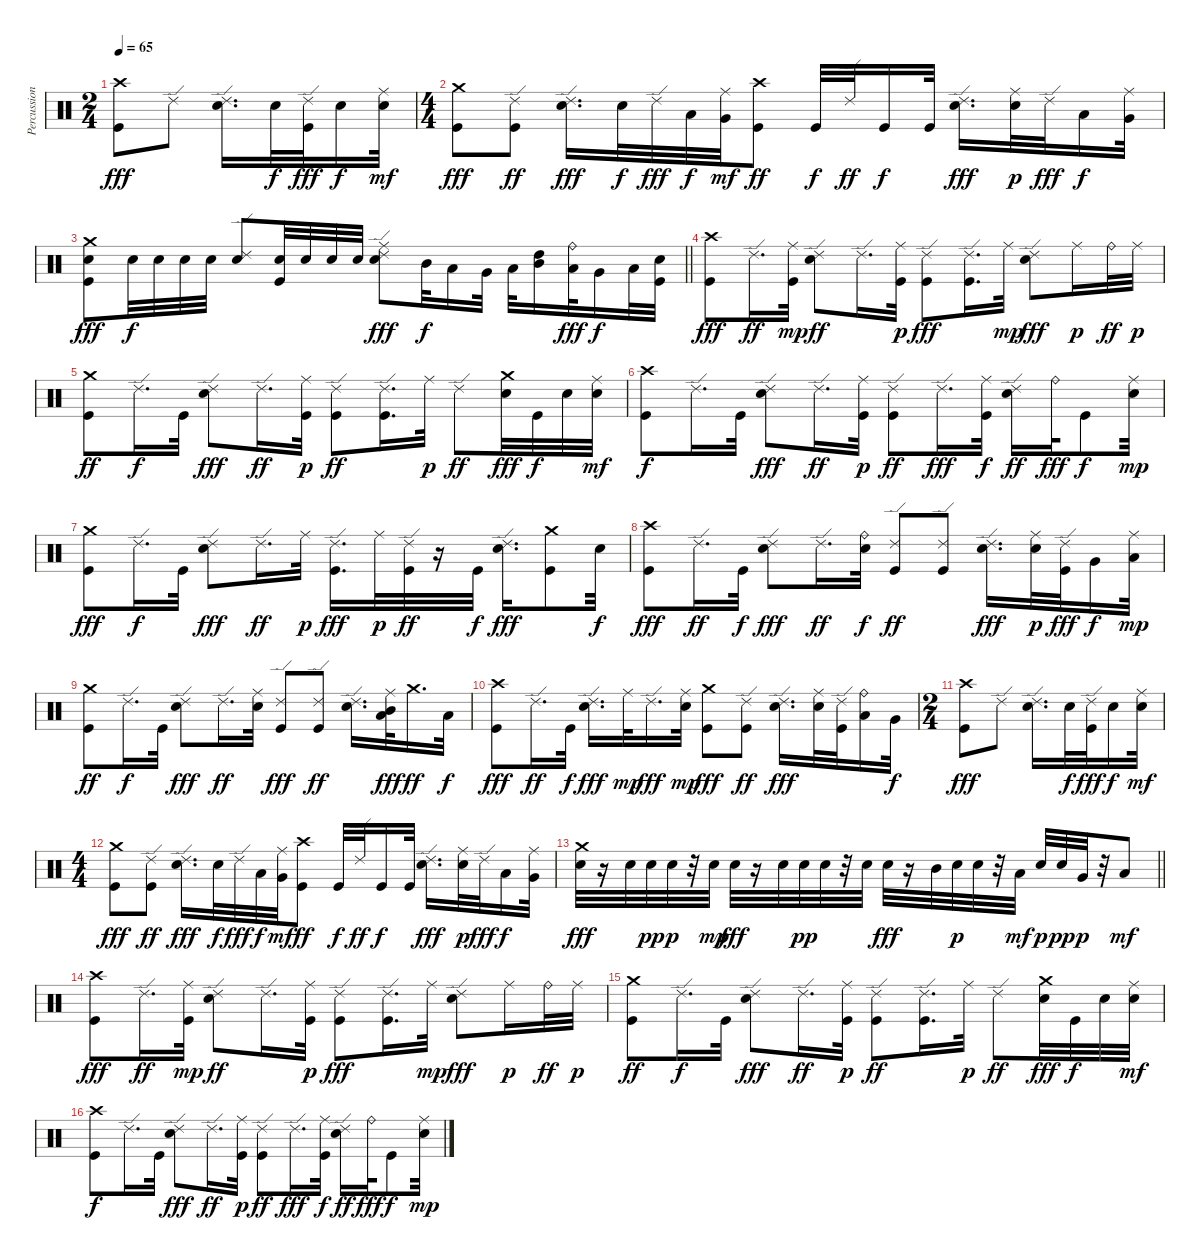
\track ("Percussions" "Percussion") {instrument percussion}
\staff {score}
\articulation defaults
\ts (2 4)
\tempo 65
\clef neutral
\ks c
("Crash high (hit)" "Kick (hit)").8{dy fff} "Ride (edge) 2".8 ("Ride (edge) 2" "Electric Snare (hit)").16{d} "Electric Snare (hit)".32{dy f} ("Ride (edge) 2" "Kick (hit)").32{dy fff} "Electric Snare (hit)".16{dy f} ("Ride (middle)" "Electric Snare (hit)").32{dy mf} |
\ts (4 4)
("Crash medium (hit)" "Kick (hit)").8{dy fff} ("Ride (edge) 2" "Kick (hit)").8{dy ff} ("Ride (edge) 2" "Electric Snare (hit)").16{d dy fff} "Electric Snare (hit)".32{dy f} "Ride (edge) 2".32{dy fff} "Low Tom (hit)".32{dy f} ("Ride (middle)" "Very Low Tom (hit)").32{dy mf} ("Crash high (hit)" "Kick (hit)").8{dy ff} "Kick (hit)".32{dy f} "Ride (edge) 2".32{dy ff} "Kick (hit)".16{dy f} "Kick (hit)".32 ("Ride (edge) 2" "Electric Snare (hit)").16{d dy fff} ("Ride (middle)" "Electric Snare (hit)").32{dy p} "Ride (edge) 2".32{dy fff} "Low Tom (hit)".16{dy f} ("Ride (middle)" "Very Low Tom (hit)").32 |
\barLineRight lightlight
("Crash medium (hit)" "Electric Snare (hit)" "Kick (hit)").8{dy fff} "Electric Snare (hit)".32{dy f} "Electric Snare (hit)".32 "Electric Snare (hit)".32 "Electric Snare (hit)".32 ("Ride (edge) 2" "Electric Snare (hit)").8 ("Electric Snare (hit)" "Kick (hit)").32 "Electric Snare (hit)".32 "Electric Snare (hit)".32 "Electric Snare (hit)".32 ("Ride (edge) 2" "Ride (middle)" "Electric Snare (hit)").8{dy fff} "Mid Tom (hit)".32{dy f} "Low Tom (hit)".16 "Very Low Tom (hit)".32 "Low Floor Tom (hit)".32 ("High Tom (hit)" "Mid Tom (hit)").16 ("Ride (bell)" "Low Tom (hit)").32{dy fff} "Very Low Tom (hit)".16{dy f} "Low Floor Tom (hit)".32 ("Electric Snare (hit)" "Kick (hit)").32 |
("Crash high (hit)" "Kick (hit)").8{dy fff} "Ride (edge) 2".16{d dy ff} ("Ride (middle)" "Kick (hit)").32{dy mp} ("Ride (edge) 2" "Electric Snare (hit)").8{dy ff} "Ride (edge) 2".16{d} ("Ride (middle)" "Kick (hit)").32{dy p} ("Ride (edge) 2" "Kick (hit)").8{dy fff} ("Ride (edge) 2" "Kick (hit)").16{d} "Ride (middle)".32{dy mp} ("Ride (edge) 2" "Electric Snare (hit)").8{dy fff} "Ride (middle)".16{dy p} "Ride (bell)".32{dy ff} "Ride (middle)".32{dy p} |
("Crash medium (hit)" "Kick (hit)").8{dy ff} "Ride (edge) 2".16{d dy f} "Kick (hit)".32 ("Ride (edge) 2" "Electric Snare (hit)").8{dy fff} "Ride (edge) 2".16{d dy ff} ("Ride (middle)" "Kick (hit)").32{dy p} ("Ride (edge) 2" "Kick (hit)").8{dy ff} ("Ride (edge) 2" "Kick (hit)").16{d} "Ride (middle)".32{dy p} "Ride (edge) 2".8{dy ff} ("Crash medium (hit)" "Electric Snare (hit)").32{dy fff} "Kick (hit)".32{dy f} "Electric Snare (hit)".32 ("Ride (middle)" "Electric Snare (hit)").32{dy mf} |
("Crash high (hit)" "Kick (hit)").8{dy f} "Ride (edge) 2".16{d} "Kick (hit)".32 ("Ride (edge) 2" "Electric Snare (hit)").8{dy fff} "Ride (edge) 2".16{d dy ff} ("Ride (middle)" "Kick (hit)").32{dy p} ("Ride (edge) 2" "Kick (hit)").8{dy ff} "Ride (edge) 2".16{d dy fff} ("Ride (middle)" "Kick (hit)").32{dy f} ("Ride (edge) 2" "Electric Snare (hit)").16{dy ff} "Ride (bell)".32{dy fff} "Kick (hit)".8{dy f} ("Ride (middle)" "Electric Snare (hit)").32{dy mp} |
("Crash medium (hit)" "Kick (hit)").8{dy fff} "Ride (edge) 2".16{d dy f} "Kick (hit)".32 ("Ride (edge) 2" "Electric Snare (hit)").8{dy fff} "Ride (edge) 2".16{d dy ff} "Ride (middle)".32{dy p} ("Ride (edge) 2" "Kick (hit)").16{d dy fff} "Ride (middle)".32{dy p} ("Ride (edge) 2" "Kick (hit)").32{dy ff} r.16 "Kick (hit)".32{dy f} ("Ride (edge) 2" "Electric Snare (hit)").16{d dy fff} ("Crash medium (hit)" "Kick (hit)").8 "Electric Snare (hit)".32{dy f} |
("Crash high (hit)" "Kick (hit)").8{dy fff} "Ride (edge) 2".16{d dy ff} "Kick (hit)".32{dy f} ("Ride (edge) 2" "Electric Snare (hit)").8{dy fff} "Ride (edge) 2".16{d dy ff} ("Ride (bell)" "Electric Snare (hit)").32{dy f} ("Ride (edge) 2" "Kick (hit)").8{dy ff} ("Ride (edge) 2" "Kick (hit)").8 ("Ride (edge) 2" "Electric Snare (hit)").16{d dy fff} ("Ride (middle)" "Electric Snare (hit)").32{dy p} ("Ride (edge) 2" "Kick (hit)").32{dy fff} "Very Low Tom (hit)".16{dy f} ("Ride (middle)" "Low Floor Tom (hit)").32{dy mp} |
("Crash medium (hit)" "Kick (hit)").8{dy ff} "Ride (edge) 2".16{d dy f} "Kick (hit)".32 ("Ride (edge) 2" "Electric Snare (hit)").8{dy fff} "Ride (edge) 2".16{d dy ff} ("Ride (middle)" "Electric Snare (hit)").32 ("Ride (edge) 2" "Kick (hit)").8{dy fff} ("Ride (edge) 2" "Kick (hit)").8{dy ff} ("Ride (edge) 2" "Electric Snare (hit)").16{d} ("Ride (middle)" "Mid Tom (hit)" "Low Tom (hit)").32{dy fff} "Crash medium (hit)".16{d dy ff} "Low Floor Tom (hit)".32{dy f} |
("Crash high (hit)" "Kick (hit)").8{dy fff} "Ride (edge) 2".16{d dy ff} "Kick (hit)".32{dy f} ("Ride (edge) 2" "Electric Snare (hit)").16{d dy fff} "Ride (middle)".32{dy mp} "Ride (edge) 2".16{d dy fff} ("Ride (middle)" "Electric Snare (hit)").32{dy mp} ("Crash medium (hit)" "Kick (hit)").8{dy fff} ("Ride (edge) 2" "Kick (hit)").8{dy ff} ("Ride (edge) 2" "Electric Snare (hit)").16{d dy fff} ("Ride (middle)" "Electric Snare (hit)").32 ("Ride (edge) 2" "Kick (hit)").32 ("Ride (bell)" "Low Tom (hit)").16 "Very Low Tom (hit)".32{dy f} |
\ts (2 4)
("Crash high (hit)" "Kick (hit)").8{dy fff} "Ride (edge) 2".8 ("Ride (edge) 2" "Electric Snare (hit)").16{d} "Electric Snare (hit)".32{dy f} ("Ride (edge) 2" "Kick (hit)").32{dy fff} "Electric Snare (hit)".16{dy f} ("Ride (middle)" "Electric Snare (hit)").32{dy mf} |
\ts (4 4)
("Crash medium (hit)" "Kick (hit)").8{dy fff} ("Ride (edge) 2" "Kick (hit)").8{dy ff} ("Ride (edge) 2" "Electric Snare (hit)").16{d dy fff} "Electric Snare (hit)".32{dy f} "Ride (edge) 2".32{dy fff} "Low Tom (hit)".32{dy f} ("Ride (middle)" "Very Low Tom (hit)").32{dy mf} ("Crash high (hit)" "Kick (hit)").8{dy ff} "Kick (hit)".32{dy f} "Ride (edge) 2".32{dy ff} "Kick (hit)".16{dy f} "Kick (hit)".32 ("Ride (edge) 2" "Electric Snare (hit)").16{d dy fff} ("Ride (middle)" "Electric Snare (hit)").32{dy p} "Ride (edge) 2".32{dy fff} "Low Tom (hit)".16{dy f} ("Ride (middle)" "Very Low Tom (hit)").32 |
\barLineRight lightlight
("Crash medium (hit)" "Electric Snare (hit)").32{dy fff} r.16{txt ""} "Electric Snare (hit)".32 "Electric Snare (hit)".32{dy pp} "Electric Snare (hit)".32{dy p} r.32 "Electric Snare (hit)".32{dy mp} "Electric Snare (hit)".32{dy fff} r.16 "Electric Snare (hit)".32 "Electric Snare (hit)".32{dy pp} "Electric Snare (hit)".32 r.32 "Electric Snare (hit)".32 "Electric Snare (hit)".32{dy fff} r.16 "Mid Tom (hit)".32 "Electric Snare (hit)".32{dy p} "Electric Snare (hit)".32 r.32 "Low Tom (hit)".32{dy mf} "Electric Snare (hit)".32{dy p} "Electric Snare (hit)".32{dy pp} "Very Low Tom (hit)".32{dy p} r.32 "Low Floor Tom (hit)".8{dy mf} |
("Crash high (hit)" "Kick (hit)").8{dy fff} "Ride (edge) 2".16{d dy ff} ("Ride (middle)" "Kick (hit)").32{dy mp} ("Ride (edge) 2" "Electric Snare (hit)").8{dy ff} "Ride (edge) 2".16{d} ("Ride (middle)" "Kick (hit)").32{dy p} ("Ride (edge) 2" "Kick (hit)").8{dy fff} ("Ride (edge) 2" "Kick (hit)").16{d} "Ride (middle)".32{dy mp} ("Ride (edge) 2" "Electric Snare (hit)").8{dy fff} "Ride (middle)".16{dy p} "Ride (bell)".32{dy ff} "Ride (middle)".32{dy p} |
("Crash medium (hit)" "Kick (hit)").8{dy ff} "Ride (edge) 2".16{d dy f} "Kick (hit)".32 ("Ride (edge) 2" "Electric Snare (hit)").8{dy fff} "Ride (edge) 2".16{d dy ff} ("Ride (middle)" "Kick (hit)").32{dy p} ("Ride (edge) 2" "Kick (hit)").8{dy ff} ("Ride (edge) 2" "Kick (hit)").16{d} "Ride (middle)".32{dy p} "Ride (edge) 2".8{dy ff} ("Crash medium (hit)" "Electric Snare (hit)").32{dy fff} "Kick (hit)".32{dy f} "Electric Snare (hit)".32 ("Ride (middle)" "Electric Snare (hit)").32{dy mf} |
("Crash high (hit)" "Kick (hit)").8{dy f} "Ride (edge) 2".16{d} "Kick (hit)".32 ("Ride (edge) 2" "Electric Snare (hit)").8{dy fff} "Ride (edge) 2".16{d dy ff} ("Ride (middle)" "Kick (hit)").32{dy p} ("Ride (edge) 2" "Kick (hit)").8{dy ff} "Ride (edge) 2".16{d dy fff} ("Ride (middle)" "Kick (hit)").32{dy f} ("Ride (edge) 2" "Electric Snare (hit)").16{dy ff} "Ride (bell)".32{dy fff} "Kick (hit)".8{dy f} ("Ride (middle)" "Electric Snare (hit)").32{dy mp}
